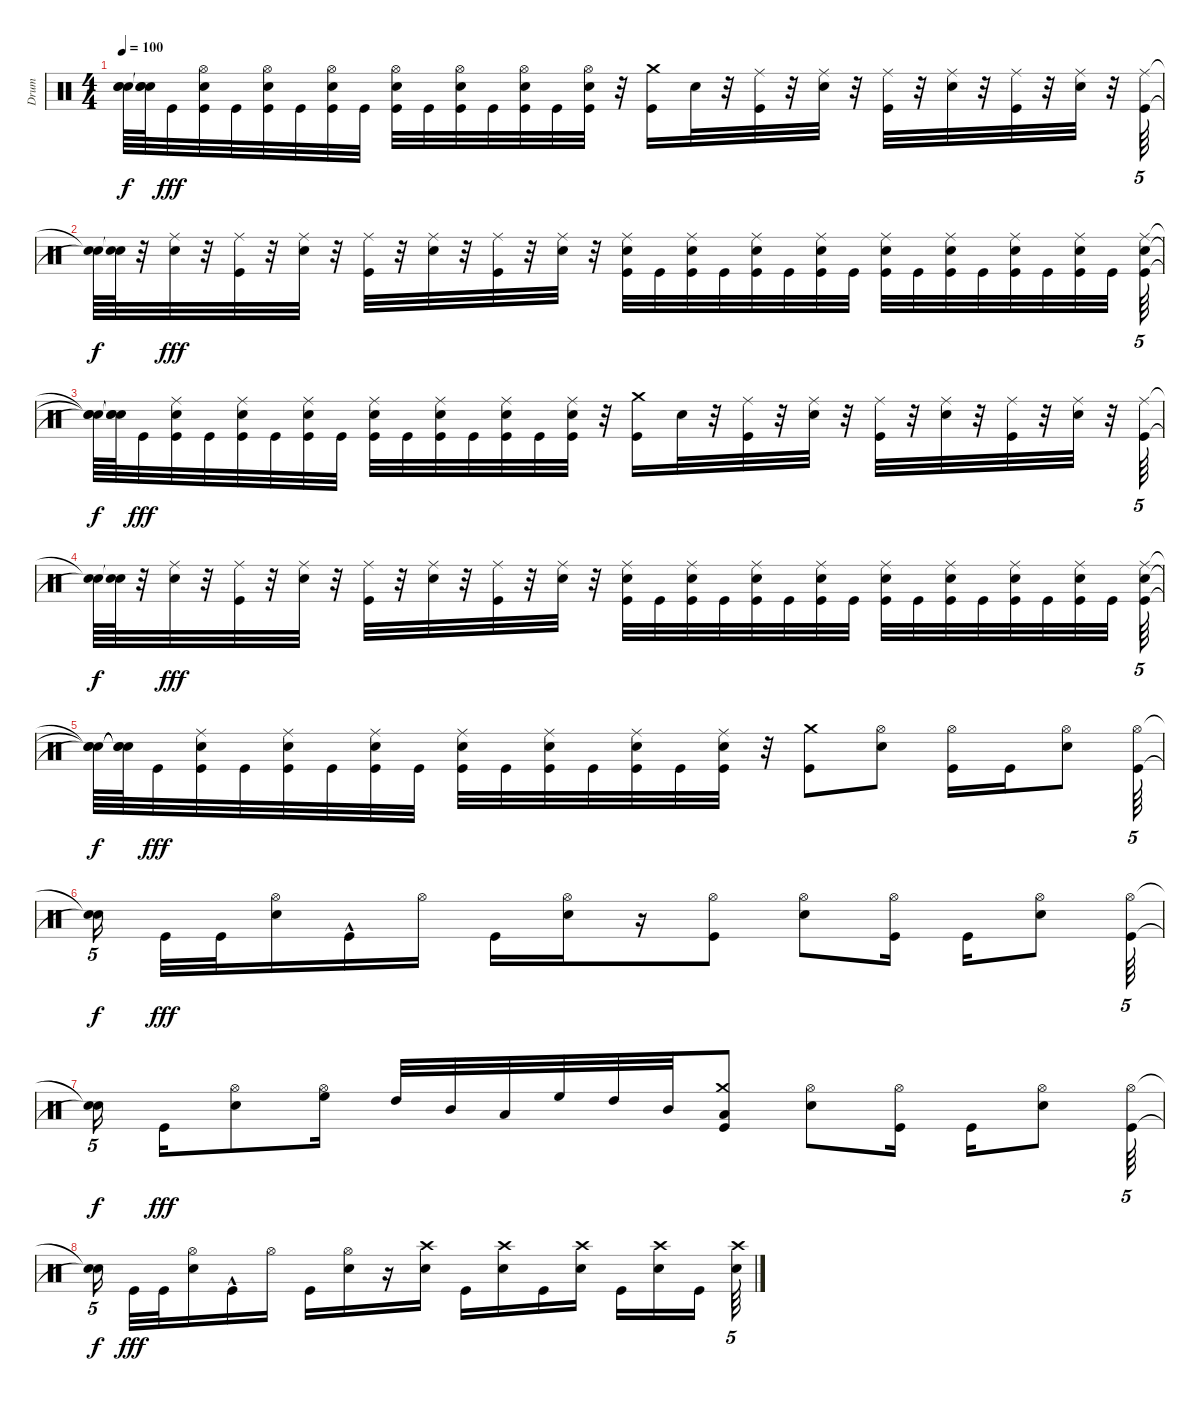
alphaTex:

\track ("Drum" "Drum") {instrument percussion}
\staff {score}
\articulation defaults
\ts (4 4)
\tempo 100
\clef neutral
\ks c
("Snare (hit)"{t} "Snare (hit)"{t} "Snare (hit)"{t}).64{dy f} ("Snare (hit)"{t} "Snare (hit)"{t} "Snare (hit)"{t}).64 "Kick (hit)".32{dy fff} ("Kick (hit)" "Snare (hit) 2" "Hi-Hat (open)").32 "Kick (hit)".32 ("Kick (hit)" "Hi-Hat (open)" "Snare (hit) 2").32 "Kick (hit)".32 ("Kick (hit)" "Hi-Hat (open)" "Snare (hit) 2").32 "Kick (hit)".32 ("Kick (hit)" "Snare (hit) 2" "Hi-Hat (open)").32 "Kick (hit)".32 ("Kick (hit)" "Snare (hit) 2" "Hi-Hat (open)").32 "Kick (hit)".32 ("Kick (hit)" "Snare (hit) 2" "Hi-Hat (open)").32 "Kick (hit)".32 ("Kick (hit)" "Snare (hit) 2" "Hi-Hat (open)").32 r.32 ("Crash medium (hit)" "Kick (hit)").16 "Snare (hit) 2".32 r.32 ("Kick (hit)" "Ride (middle)").32 r.32 ("Ride (middle)" "Snare (hit) 2").32 r.32 ("Kick (hit)" "Ride (middle)").32 r.32 ("Ride (middle)" "Snare (hit) 2").32 r.32 ("Kick (hit)" "Ride (middle)").32 r.32 ("Ride (middle)" "Snare (hit) 2").32 r.32 ("Kick (hit)" "Ride (middle)").64{tu (5 4)} |
("Snare (hit)"{t} "Snare (hit)"{t}).64{dy f} ("Snare (hit)"{t} "Snare (hit)"{t}).64 r.32 ("Snare (hit) 2" "Ride (middle)").32{dy fff} r.32 ("Kick (hit)" "Ride (middle)").32 r.32 ("Snare (hit) 2" "Ride (middle)").32 r.32 ("Kick (hit)" "Ride (middle)").32 r.32 ("Snare (hit) 2" "Ride (middle)").32 r.32 ("Kick (hit)" "Ride (middle)").32 r.32 ("Ride (middle)" "Snare (hit) 2").32 r.32 ("Kick (hit)" "Ride (middle)" "Snare (hit) 2").32 "Kick (hit)".32 ("Kick (hit)" "Snare (hit) 2" "Ride (middle)").32 "Kick (hit)".32 ("Kick (hit)" "Ride (middle)" "Snare (hit) 2").32 "Kick (hit)".32 ("Kick (hit)" "Ride (middle)" "Snare (hit) 2").32 "Kick (hit)".32 ("Kick (hit)" "Snare (hit) 2" "Ride (middle)").32 "Kick (hit)".32 ("Kick (hit)" "Snare (hit) 2" "Ride (middle)").32 "Kick (hit)".32 ("Kick (hit)" "Ride (middle)" "Snare (hit) 2").32 "Kick (hit)".32 ("Kick (hit)" "Ride (middle)" "Snare (hit) 2").32 "Kick (hit)".32 ("Kick (hit)" "Snare (hit) 2" "Ride (middle)").64{tu (5 4)} |
("Snare (hit)"{t} "Snare (hit)"{t} "Snare (hit)"{t}).64{dy f} ("Snare (hit)"{t} "Snare (hit)"{t} "Snare (hit)"{t}).64 "Kick (hit)".32{dy fff} ("Kick (hit)" "Ride (middle)" "Snare (hit) 2").32 "Kick (hit)".32 ("Kick (hit)" "Snare (hit) 2" "Ride (middle)").32 "Kick (hit)".32 ("Kick (hit)" "Snare (hit) 2" "Ride (middle)").32 "Kick (hit)".32 ("Kick (hit)" "Ride (middle)" "Snare (hit) 2").32 "Kick (hit)".32 ("Kick (hit)" "Snare (hit) 2" "Ride (middle)").32 "Kick (hit)".32 ("Kick (hit)" "Snare (hit) 2" "Ride (middle)").32 "Kick (hit)".32 ("Kick (hit)" "Ride (middle)" "Snare (hit) 2").32 r.32 ("Crash medium (hit)" "Kick (hit)").16 "Snare (hit) 2".32 r.32 ("Kick (hit)" "Ride (middle)").32 r.32 ("Ride (middle)" "Snare (hit) 2").32 r.32 ("Ride (middle)" "Kick (hit)").32 r.32 ("Ride (middle)" "Snare (hit) 2").32 r.32 ("Ride (middle)" "Kick (hit)").32 r.32 ("Ride (middle)" "Snare (hit) 2").32 r.32 ("Ride (middle)" "Kick (hit)").64{tu (5 4)} |
("Snare (hit)"{t} "Snare (hit)"{t}).64{dy f} ("Snare (hit)"{t} "Snare (hit)"{t}).64 r.32 ("Ride (middle)" "Snare (hit) 2").32{dy fff} r.32 ("Ride (middle)" "Kick (hit)").32 r.32 ("Ride (middle)" "Snare (hit) 2").32 r.32 ("Ride (middle)" "Kick (hit)").32 r.32 ("Ride (middle)" "Snare (hit) 2").32 r.32 ("Ride (middle)" "Kick (hit)").32 r.32 ("Ride (middle)" "Snare (hit) 2").32 r.32 ("Kick (hit)" "Ride (middle)" "Snare (hit) 2").32 "Kick (hit)".32 ("Kick (hit)" "Ride (middle)" "Snare (hit) 2").32 "Kick (hit)".32 ("Kick (hit)" "Ride (middle)" "Snare (hit) 2").32 "Kick (hit)".32 ("Kick (hit)" "Ride (middle)" "Snare (hit) 2").32 "Kick (hit)".32 ("Kick (hit)" "Ride (middle)" "Snare (hit) 2").32 "Kick (hit)".32 ("Kick (hit)" "Ride (middle)" "Snare (hit) 2").32 "Kick (hit)".32 ("Ride (middle)" "Kick (hit)" "Snare (hit) 2").32 "Kick (hit)".32 ("Kick (hit)" "Ride (middle)" "Snare (hit) 2").32 "Kick (hit)".32 ("Ride (middle)" "Kick (hit)" "Snare (hit) 2").64{tu (5 4)} |
("Snare (hit)"{t} "Snare (hit)"{t} "Snare (hit)"{t}).64{dy f} ("Snare (hit)"{t} "Snare (hit)"{t} "Snare (hit)"{t}).64 "Kick (hit)".32{dy fff} ("Ride (middle)" "Kick (hit)" "Snare (hit) 2").32 "Kick (hit)".32 ("Kick (hit)" "Ride (middle)" "Snare (hit) 2").32 "Kick (hit)".32 ("Ride (middle)" "Kick (hit)" "Snare (hit) 2").32 "Kick (hit)".32 ("Kick (hit)" "Ride (middle)" "Snare (hit) 2").32 "Kick (hit)".32 ("Kick (hit)" "Ride (middle)" "Snare (hit) 2").32 "Kick (hit)".32 ("Ride (middle)" "Kick (hit)" "Snare (hit) 2").32 "Kick (hit)".32 ("Ride (middle)" "Kick (hit)" "Snare (hit) 2").32 r.32 ("Kick (hit)" "Crash medium (hit)").8 ("Snare (hit) 2" "Hi-Hat (open)").8 ("Kick (hit)" "Hi-Hat (open)").16 "Kick (hit)".16 ("Snare (hit) 2" "Hi-Hat (open)").8 ("Kick (hit)" "Hi-Hat (open)").64{tu (5 4)} |
("Snare (hit)"{t} "Snare (hit)"{t}).16{tu (5 4) dy f} "Kick (hit)".32{dy fff} "Kick (hit)".32 ("Hi-Hat (open)" "Snare (hit) 2").16 "Kick (hit)"{hac}.16 "Hi-Hat (open)".16 "Kick (hit)".16 ("Hi-Hat (open)" "Snare (hit) 2").16 r.16 ("Kick (hit)" "Hi-Hat (open)").8 ("Snare (hit) 2" "Hi-Hat (open)").8 ("Kick (hit)" "Hi-Hat (open)").16 "Kick (hit)".16 ("Hi-Hat (open)" "Snare (hit) 2").8 ("Kick (hit)" "Hi-Hat (open)").64{tu (5 4)} |
("Snare (hit)"{t} "Snare (hit)"{t}).16{tu (5 4) dy f} "Kick (hit)".16{dy fff} ("Snare (hit) 2" "Hi-Hat (open)").8 ("High Floor Tom (hit)" "Hi-Hat (open)").16 "High Tom (hit)".32 "Mid Tom (hit)".32 "Low Tom (hit)".32 "High Floor Tom (hit)".32 "High Tom (hit)".32 "Mid Tom (hit)".32 ("Kick (hit)" "Crash medium (hit)" "Low Tom (hit)").8 ("Hi-Hat (open)" "Snare (hit) 2").8 ("Kick (hit)" "Hi-Hat (open)").16 "Kick (hit)".16 ("Hi-Hat (open)" "Snare (hit) 2").8 ("Kick (hit)" "Hi-Hat (open)").64{tu (5 4)} |
("Snare (hit)"{t} "Snare (hit)"{t}).16{tu (5 4) dy f} "Kick (hit)".32{dy fff} "Kick (hit)".32 ("Snare (hit) 2" "Hi-Hat (open)").16 "Kick (hit)"{hac}.16 "Hi-Hat (open)".16 "Kick (hit)".16 ("Snare (hit) 2" "Hi-Hat (open)").16 r.16 ("Snare (hit) 2" "Crash high (hit)").16 "Kick (hit)".16 ("Snare (hit) 2" "Crash high (hit)").16 "Kick (hit)".16 ("Snare (hit) 2" "Crash high (hit)").16 "Kick (hit)".16 ("Snare (hit) 2" "Crash high (hit)").16 "Kick (hit)".16 ("Snare (hit) 2" "Crash high (hit)").64{tu (5 4)}
